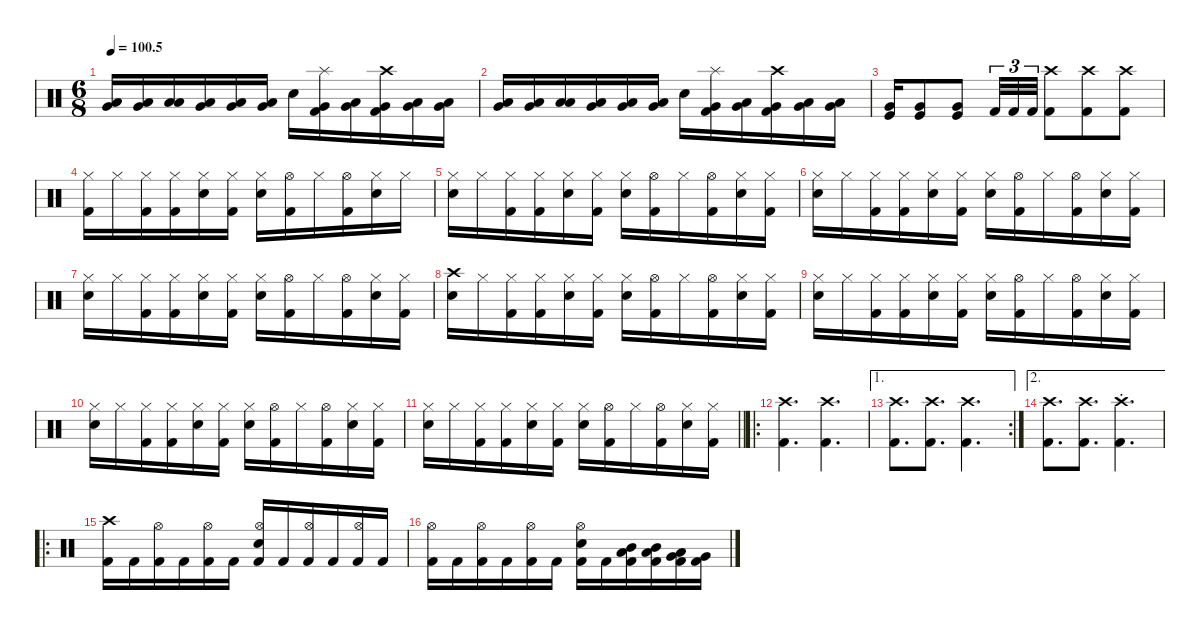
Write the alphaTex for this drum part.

\defaultSystemsLayout 4
\hideDynamics
\bracketExtendMode nobrackets
\singleTrackTrackNamePolicy hidden
\multiTrackTrackNamePolicy hidden
\firstSystemTrackNameMode fullname
\firstSystemTrackNameOrientation horizontal
\otherSystemsTrackNameOrientation horizontal
\track ("Drums" "drm.") {instrument percussion}
\staff {score}
\articulation defaults
\ts (6 8)
\tempo
100.5
\accidentals auto
\clef neutral
\ottava regular
\simile none
\ks c
("Low Tom (hit)" "Very Low Tom (hit)").16{dy mf beam Up} ("Low Tom (hit)" "Very Low Tom (hit)").16{dy f beam Up} ("Low Tom (hit)" "Low Tom (hit)").16{dy mf beam Up} ("Low Tom (hit)" "Very Low Tom (hit)").16{dy f beam Up} ("Low Tom (hit)" "Very Low Tom (hit)").16{dy mp beam Up} ("Low Tom (hit)" "Very Low Tom (hit)").16{dy f beam Up} "Snare (hit) 2".16{beam Down} ("Splash (hit)" "Very Low Tom (hit)" "Kick (hit) 2").16{dy ff beam Down} ("Low Tom (hit)" "Very Low Tom (hit)").16{dy mp beam Down} ("Crash high (hit)" "Very Low Tom (hit)" "Kick (hit) 2").16{dy f beam Down} ("Low Tom (hit)" "Very Low Tom (hit)").16{dy mf beam Down} ("Low Tom (hit)" "Very Low Tom (hit)").16{dy f beam Down} |
("Low Tom (hit)" "Very Low Tom (hit)").16{dy mf beam Up} ("Low Tom (hit)" "Very Low Tom (hit)").16{dy f beam Up} ("Low Tom (hit)" "Low Tom (hit)").16{dy mf beam Up} ("Low Tom (hit)" "Very Low Tom (hit)").16{dy f beam Up} ("Low Tom (hit)" "Very Low Tom (hit)").16{dy mp beam Up} ("Low Tom (hit)" "Very Low Tom (hit)").16{dy f beam Up} "Snare (hit) 2".16{beam Down} ("Splash (hit)" "Very Low Tom (hit)" "Kick (hit) 2").16{dy ff beam Down} ("Low Tom (hit)" "Very Low Tom (hit)").16{dy mp beam Down} ("Crash high (hit)" "Very Low Tom (hit)" "Kick (hit) 2").16{dy f beam Down} ("Low Tom (hit)" "Very Low Tom (hit)").16{dy mf beam Down} ("Low Tom (hit)" "Very Low Tom (hit)").16{dy f beam Down} |
("Very Low Tom (hit)" "Kick (hit)").16{dy ff beam Up} ("Very Low Tom (hit)" "Kick (hit)").8{beam Up} ("Very Low Tom (hit)" "Kick (hit)").8{beam Up} "Kick (hit) 2".32{tu (3 2) dy f beam Up} "Kick (hit) 2".32{tu (3 2) beam Up} "Kick (hit) 2".32{tu (3 2) beam Up} ("Crash high (hit)" "Kick (hit) 2").8{beam Down} ("Crash high (hit)" "Kick (hit) 2").8{beam Down} ("Crash high (hit)" "Kick (hit) 2").8{beam Down} |
("Hi-Hat (closed)" "Kick (hit) 2").16{beam Down} "Hi-Hat (closed)".16{beam Down} ("Hi-Hat (closed)" "Kick (hit) 2").16{beam Down} ("Hi-Hat (closed)" "Kick (hit) 2").16{beam Down} ("Hi-Hat (closed)" "Snare (hit) 2").16{beam Down} ("Hi-Hat (closed)" "Kick (hit) 2").16{beam Down} ("Hi-Hat (closed)" "Snare (hit) 2").16{beam Down} ("Hi-Hat (open)" "Kick (hit) 2").16{dy ff beam Down} "Hi-Hat (closed)".16{dy f beam Down} ("Hi-Hat (open)" "Kick (hit) 2").16{dy ff beam Down} ("Hi-Hat (closed)" "Snare (hit) 2").16{dy f beam Down} "Hi-Hat (closed)".16{beam Down} |
("Hi-Hat (closed)" "Snare (hit) 2").16{beam Down} "Hi-Hat (closed)".16{beam Down} ("Hi-Hat (closed)" "Kick (hit) 2").16{beam Down} ("Hi-Hat (closed)" "Kick (hit) 2").16{beam Down} ("Hi-Hat (closed)" "Snare (hit) 2").16{beam Down} ("Hi-Hat (closed)" "Kick (hit) 2").16{beam Down} ("Hi-Hat (closed)" "Snare (hit) 2").16{beam Down} ("Hi-Hat (open)" "Kick (hit) 2").16{dy ff beam Down} "Hi-Hat (closed)".16{dy f beam Down} ("Hi-Hat (open)" "Kick (hit) 2").16{dy ff beam Down} ("Hi-Hat (closed)" "Snare (hit) 2").16{dy f beam Down} ("Hi-Hat (closed)" "Kick (hit) 2").16{beam Down} |
("Hi-Hat (closed)" "Snare (hit) 2").16{beam Down} "Hi-Hat (closed)".16{beam Down} ("Hi-Hat (closed)" "Kick (hit) 2").16{beam Down} ("Hi-Hat (closed)" "Kick (hit) 2").16{beam Down} ("Hi-Hat (closed)" "Snare (hit) 2").16{beam Down} ("Hi-Hat (closed)" "Kick (hit) 2").16{beam Down} ("Hi-Hat (closed)" "Snare (hit) 2").16{beam Down} ("Hi-Hat (open)" "Kick (hit) 2").16{dy ff beam Down} "Hi-Hat (closed)".16{dy f beam Down} ("Hi-Hat (open)" "Kick (hit) 2").16{dy ff beam Down} ("Hi-Hat (closed)" "Snare (hit) 2").16{dy f beam Down} ("Hi-Hat (closed)" "Kick (hit) 2").16{beam Down} |
("Hi-Hat (closed)" "Snare (hit) 2").16{beam Down} "Hi-Hat (closed)".16{beam Down} ("Hi-Hat (closed)" "Kick (hit) 2").16{beam Down} ("Hi-Hat (closed)" "Kick (hit) 2").16{beam Down} ("Hi-Hat (closed)" "Snare (hit) 2").16{beam Down} ("Hi-Hat (closed)" "Kick (hit) 2").16{beam Down} ("Hi-Hat (closed)" "Snare (hit) 2").16{beam Down} ("Hi-Hat (open)" "Kick (hit) 2").16{dy ff beam Down} "Hi-Hat (closed)".16{dy f beam Down} ("Hi-Hat (open)" "Kick (hit) 2").16{dy ff beam Down} ("Hi-Hat (closed)" "Snare (hit) 2").16{dy f beam Down} ("Hi-Hat (closed)" "Kick (hit) 2").16{beam Down} |
("Crash high (hit)" "Snare (hit) 2").16{beam Down} "Hi-Hat (closed)".16{beam Down} ("Hi-Hat (closed)" "Kick (hit) 2").16{beam Down} ("Hi-Hat (closed)" "Kick (hit) 2").16{beam Down} ("Hi-Hat (closed)" "Snare (hit) 2").16{beam Down} ("Hi-Hat (closed)" "Kick (hit) 2").16{beam Down} ("Hi-Hat (closed)" "Snare (hit) 2").16{beam Down} ("Hi-Hat (open)" "Kick (hit) 2").16{dy ff beam Down} "Hi-Hat (closed)".16{dy f beam Down} ("Hi-Hat (open)" "Kick (hit) 2").16{dy ff beam Down} ("Hi-Hat (closed)" "Snare (hit) 2").16{dy f beam Down} ("Hi-Hat (closed)" "Kick (hit) 2").16{beam Down} |
("Hi-Hat (closed)" "Snare (hit) 2").16{beam Down} "Hi-Hat (closed)".16{beam Down} ("Hi-Hat (closed)" "Kick (hit) 2").16{beam Down} ("Hi-Hat (closed)" "Kick (hit) 2").16{beam Down} ("Hi-Hat (closed)" "Snare (hit) 2").16{beam Down} ("Hi-Hat (closed)" "Kick (hit) 2").16{beam Down} ("Hi-Hat (closed)" "Snare (hit) 2").16{beam Down} ("Hi-Hat (open)" "Kick (hit) 2").16{dy ff beam Down} "Hi-Hat (closed)".16{dy f beam Down} ("Hi-Hat (open)" "Kick (hit) 2").16{dy ff beam Down} ("Hi-Hat (closed)" "Snare (hit) 2").16{dy f beam Down} ("Hi-Hat (closed)" "Kick (hit) 2").16{beam Down} |
("Hi-Hat (closed)" "Snare (hit) 2").16{beam Down} "Hi-Hat (closed)".16{beam Down} ("Hi-Hat (closed)" "Kick (hit) 2").16{beam Down} ("Hi-Hat (closed)" "Kick (hit) 2").16{beam Down} ("Hi-Hat (closed)" "Snare (hit) 2").16{beam Down} ("Hi-Hat (closed)" "Kick (hit) 2").16{beam Down} ("Hi-Hat (closed)" "Snare (hit) 2").16{beam Down} ("Hi-Hat (open)" "Kick (hit) 2").16{dy ff beam Down} "Hi-Hat (closed)".16{dy f beam Down} ("Hi-Hat (open)" "Kick (hit) 2").16{dy ff beam Down} ("Hi-Hat (closed)" "Snare (hit) 2").16{dy f beam Down} ("Hi-Hat (closed)" "Kick (hit) 2").16{beam Down} |
\barLineRight lightlight
("Hi-Hat (closed)" "Snare (hit) 2").16{beam Down} "Hi-Hat (closed)".16{beam Down} ("Hi-Hat (closed)" "Kick (hit) 2").16{beam Down} ("Hi-Hat (closed)" "Kick (hit) 2").16{beam Down} ("Hi-Hat (closed)" "Snare (hit) 2").16{beam Down} ("Hi-Hat (closed)" "Kick (hit) 2").16{beam Down} ("Hi-Hat (closed)" "Snare (hit) 2").16{beam Down} ("Hi-Hat (open)" "Kick (hit) 2").16{dy ff beam Down} "Hi-Hat (closed)".16{dy f beam Down} ("Hi-Hat (open)" "Kick (hit) 2").16{dy ff beam Down} ("Hi-Hat (closed)" "Snare (hit) 2").16{dy f beam Down} ("Hi-Hat (closed)" "Kick (hit) 2").16{beam Down} |
\ro
("Crash high (hit)" "Kick (hit) 2").4{d beam Down} ("Crash high (hit)" "Kick (hit) 2").4{d beam Down} |
\ae 1
\rc 2
("Crash high (hit)" "Kick (hit) 2").8{d beam Down} ("Crash high (hit)" "Kick (hit) 2").8{d beam Down} ("Crash high (hit)" "Kick (hit) 2").4{d beam Down} |
\ae 2
("Crash high (hit)" "Kick (hit) 2").8{d beam Down} ("Crash high (hit)" "Kick (hit) 2").8{d beam Down} ("Crash high (hit)"{st} "Kick (hit) 2"{st}).4{d beam Down} |
\ro
("Crash high (hit)" "Kick (hit) 2").16{beam Down} "Kick (hit) 2".16{beam Down} ("Hi-Hat (open)" "Kick (hit) 2").16{dy mp beam Down} "Kick (hit) 2".16{dy f beam Down} ("Hi-Hat (open)" "Kick (hit) 2").16{dy mp beam Down} "Kick (hit) 2".16{dy f beam Down} ("Hi-Hat (open)" "Snare (hit) 2" "Kick (hit) 2").16{dy mp beam Up} "Kick (hit) 2".16{dy f beam Up} ("Hi-Hat (open)" "Kick (hit) 2").16{dy mp beam Up} "Kick (hit) 2".16{dy f beam Up} ("Hi-Hat (open)" "Kick (hit) 2").16{dy mp beam Up} "Kick (hit) 2".16{dy f beam Up} |
("Hi-Hat (open)" "Kick (hit) 2").16{dy mp beam Down} "Kick (hit) 2".16{dy f beam Down} ("Hi-Hat (open)" "Kick (hit) 2").16{dy mp beam Down} "Kick (hit) 2".16{dy f beam Down} ("Hi-Hat (open)" "Kick (hit) 2").16{dy mp beam Down} "Kick (hit) 2".16{dy f beam Down} ("Hi-Hat (open)" "Snare (hit) 2" "Kick (hit) 2").16{dy mp beam Down} "Kick (hit) 2".16{dy f beam Down} ("Mid Tom (hit)" "Low Tom (hit)" "Kick (hit) 2").16{beam Down} ("Mid Tom (hit)" "Low Tom (hit)" "Kick (hit) 2").16{beam Down} ("Low Tom (hit)" "Very Low Tom (hit)" "Kick (hit) 2").16{beam Down} ("Very Low Tom (hit)" "Kick (hit) 2").16{beam Down}
